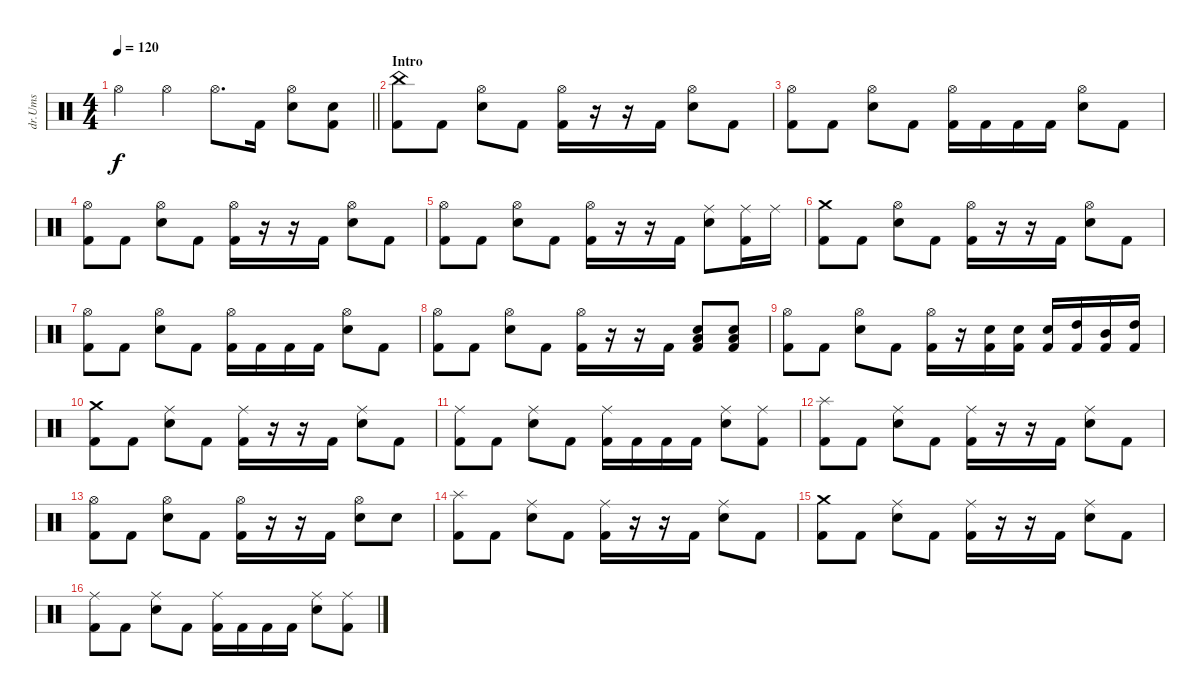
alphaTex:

\track ("dr.Ums" "dr.Ums") {instrument percussion}
\staff {score}
\articulation defaults
\ts (4 4)
\tempo 120
\clef neutral
\barLineRight lightlight
\ks c "Hi-Hat (open)".4{dy f} "Hi-Hat (open)".4 "Hi-Hat (open)".8{d} "Kick (hit) 2".16
("Snare (hit) 2" "Hi-Hat (open)").8 ("Kick (hit) 2" "Snare (hit) 2").8 |
\section ("" "Intro")
("Kick (hit) 2" "China (hit)").8 "Kick (hit) 2".8 ("Snare (hit) 2" "Hi-Hat (open)").8 "Kick (hit) 2".8 ("Kick (hit) 2" "Hi-Hat (open)").16 r.16 r.16 "Kick (hit) 2".16 ("Snare (hit) 2" "Hi-Hat (open)").8 "Kick (hit) 2".8 |
("Kick (hit) 2" "Hi-Hat (open)").8 "Kick (hit) 2".8 ("Snare (hit) 2" "Hi-Hat (open)").8 "Kick (hit) 2".8 ("Kick (hit) 2" "Hi-Hat (open)").16 "Kick (hit) 2".16 "Kick (hit) 2".16 "Kick (hit) 2".16 ("Snare (hit) 2" "Hi-Hat (open)").8 "Kick (hit) 2".8 |
("Kick (hit) 2" "Hi-Hat (open)").8 "Kick (hit) 2".8 ("Snare (hit) 2" "Hi-Hat (open)").8 "Kick (hit) 2".8 ("Kick (hit) 2" "Hi-Hat (open)").16 r.16 r.16 "Kick (hit) 2".16 ("Snare (hit) 2" "Hi-Hat (open)").8 "Kick (hit) 2".8 |
("Kick (hit) 2" "Hi-Hat (open)").8 "Kick (hit) 2".8 ("Snare (hit) 2" "Hi-Hat (open)").8 "Kick (hit) 2".8 ("Kick (hit) 2" "Hi-Hat (open)").16 r.16 r.16 "Kick (hit) 2".16 ("Snare (hit) 2" "Ride (middle)").8 ("Kick (hit) 2" "Ride (middle)").16 "Ride (middle)".16 |
("Kick (hit) 2" "Crash medium (hit)").8 "Kick (hit) 2".8 ("Snare (hit) 2" "Hi-Hat (open)").8 "Kick (hit) 2".8 ("Kick (hit) 2" "Hi-Hat (open)").16 r.16 r.16 "Kick (hit) 2".16 ("Snare (hit) 2" "Hi-Hat (open)").8 "Kick (hit) 2".8 |
("Kick (hit) 2" "Hi-Hat (open)").8 "Kick (hit) 2".8 ("Snare (hit) 2" "Hi-Hat (open)").8 "Kick (hit) 2".8 ("Kick (hit) 2" "Hi-Hat (open)").16 "Kick (hit) 2".16 "Kick (hit) 2".16 "Kick (hit) 2".16 ("Snare (hit) 2" "Hi-Hat (open)").8 "Kick (hit) 2".8 |
("Kick (hit) 2" "Hi-Hat (open)").8 "Kick (hit) 2".8 ("Snare (hit) 2" "Hi-Hat (open)").8 "Kick (hit) 2".8 ("Kick (hit) 2" "Hi-Hat (open)").16 r.16 r.16 "Kick (hit) 2".16 ("Kick (hit) 2" "Low Tom (hit)" "Snare (hit) 2").8 ("Kick (hit) 2" "Low Tom (hit)" "Snare (hit) 2").8 |
("Kick (hit) 2" "Hi-Hat (open)").8 "Kick (hit) 2".8 ("Snare (hit) 2" "Hi-Hat (open)").8 "Kick (hit) 2".8 ("Kick (hit) 2" "Hi-Hat (open)").16 r.16 ("Snare (hit) 2" "Kick (hit) 2").16 ("Snare (hit) 2" "Kick (hit) 2").16 ("Snare (hit) 2" "Kick (hit) 2").16 ("High Tom (hit)" "Kick (hit) 2").16 ("Mid Tom (hit)" "Kick (hit) 2").16 ("High Tom (hit)" "Kick (hit) 2").16 |
("Kick (hit) 2" "Crash medium (hit)").8 "Kick (hit) 2".8 ("Snare (hit) 2" "Ride (middle)").8 "Kick (hit) 2".8 ("Kick (hit) 2" "Ride (middle)").16 r.16 r.16 "Kick (hit) 2".16 ("Snare (hit) 2" "Ride (middle)").8 "Kick (hit) 2".8 |
("Kick (hit) 2" "Ride (middle)").8 "Kick (hit) 2".8 ("Snare (hit) 2" "Ride (middle)").8 "Kick (hit) 2".8 ("Kick (hit) 2" "Ride (middle)").16 "Kick (hit) 2".16 "Kick (hit) 2".16 "Kick (hit) 2".16 ("Snare (hit) 2" "Ride (middle)").8 ("Kick (hit) 2" "Ride (middle)").8 |
("Kick (hit) 2" "Splash (hit)").8 "Kick (hit) 2".8 ("Snare (hit) 2" "Ride (middle)").8 "Kick (hit) 2".8 ("Kick (hit) 2" "Ride (middle)").16 r.16 r.16 "Kick (hit) 2".16 ("Snare (hit) 2" "Ride (middle)").8 "Kick (hit) 2".8 |
("Kick (hit) 2" "Hi-Hat (open)").8 "Kick (hit) 2".8 ("Snare (hit) 2" "Hi-Hat (open)").8 "Kick (hit) 2".8 ("Kick (hit) 2" "Hi-Hat (open)").16 r.16 r.16 "Kick (hit) 2".16 ("Snare (hit) 2" "Hi-Hat (open)").8 "Snare (hit) 2".8 |
("Kick (hit) 2" "Splash (hit)").8 "Kick (hit) 2".8 ("Snare (hit) 2" "Ride (middle)").8 "Kick (hit) 2".8 ("Kick (hit) 2" "Ride (middle)").16 r.16 r.16 "Kick (hit) 2".16 ("Snare (hit) 2" "Ride (middle)").8 "Kick (hit) 2".8 |
("Kick (hit) 2" "Crash medium (hit)").8 "Kick (hit) 2".8 ("Snare (hit) 2" "Ride (middle)").8 "Kick (hit) 2".8 ("Kick (hit) 2" "Ride (middle)").16 r.16 r.16 "Kick (hit) 2".16 ("Snare (hit) 2" "Ride (middle)").8 "Kick (hit) 2".8 |
("Kick (hit) 2" "Ride (middle)").8 "Kick (hit) 2".8 ("Snare (hit) 2" "Ride (middle)").8 "Kick (hit) 2".8 ("Kick (hit) 2" "Ride (middle)").16 "Kick (hit) 2".16 "Kick (hit) 2".16 "Kick (hit) 2".16 ("Snare (hit) 2" "Ride (middle)").8 ("Kick (hit) 2" "Ride (middle)").8
